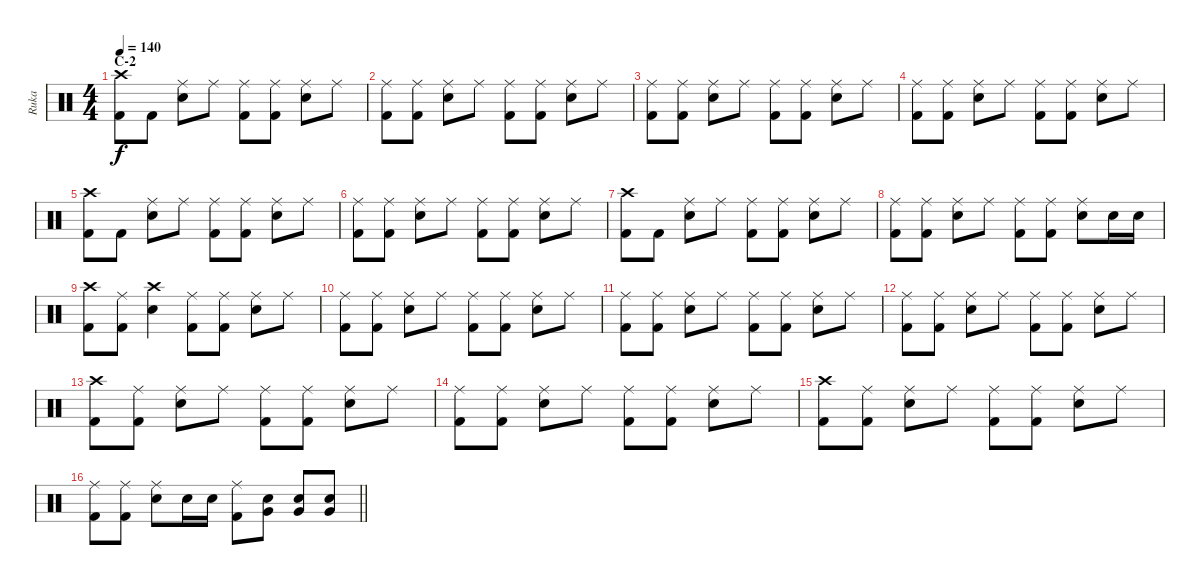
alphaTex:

\track ("Ruka" "Ruka") {instrument percussion}
\staff {score}
\articulation defaults
\ts (4 4)
\section ("" "C-2")
\tempo 140
\clef neutral
\ks c
("Crash high (hit)" "Kick (hit) 2").8{dy f} "Kick (hit) 2".8 ("Ride (middle)" "Snare (hit) 2").8 "Ride (middle)".8 ("Ride (middle)" "Kick (hit) 2").8 ("Ride (middle)" "Kick (hit) 2").8 ("Ride (middle)" "Snare (hit) 2").8 "Ride (middle)".8 |
("Ride (middle)" "Kick (hit) 2").8 ("Ride (middle)" "Kick (hit) 2").8 ("Ride (middle)" "Snare (hit) 2").8 "Ride (middle)".8 ("Ride (middle)" "Kick (hit) 2").8 ("Ride (middle)" "Kick (hit) 2").8 ("Ride (middle)" "Snare (hit) 2").8 "Ride (middle)".8 |
("Ride (middle)" "Kick (hit) 2").8 ("Ride (middle)" "Kick (hit) 2").8 ("Ride (middle)" "Snare (hit) 2").8 "Ride (middle)".8 ("Ride (middle)" "Kick (hit) 2").8 ("Ride (middle)" "Kick (hit) 2").8 ("Ride (middle)" "Snare (hit) 2").8 "Ride (middle)".8 |
("Ride (middle)" "Kick (hit) 2").8 ("Ride (middle)" "Kick (hit) 2").8 ("Ride (middle)" "Snare (hit) 2").8 "Ride (middle)".8 ("Ride (middle)" "Kick (hit) 2").8 ("Ride (middle)" "Kick (hit) 2").8 ("Ride (middle)" "Snare (hit) 2").8 "Ride (middle)".8 |
("Crash high (hit)" "Kick (hit) 2").8 "Kick (hit) 2".8 ("Ride (middle)" "Snare (hit) 2").8 "Ride (middle)".8 ("Ride (middle)" "Kick (hit) 2").8 ("Ride (middle)" "Kick (hit) 2").8 ("Ride (middle)" "Snare (hit) 2").8 "Ride (middle)".8 |
("Ride (middle)" "Kick (hit) 2").8 ("Ride (middle)" "Kick (hit) 2").8 ("Ride (middle)" "Snare (hit) 2").8 "Ride (middle)".8 ("Ride (middle)" "Kick (hit) 2").8 ("Ride (middle)" "Kick (hit) 2").8 ("Ride (middle)" "Snare (hit) 2").8 "Ride (middle)".8 |
("Crash high (hit)" "Kick (hit) 2").8 "Kick (hit) 2".8 ("Ride (middle)" "Snare (hit) 2").8 "Ride (middle)".8 ("Ride (middle)" "Kick (hit) 2").8 ("Ride (middle)" "Kick (hit) 2").8 ("Ride (middle)" "Snare (hit) 2").8 "Ride (middle)".8 |
("Ride (middle)" "Kick (hit) 2").8 ("Ride (middle)" "Kick (hit) 2").8 ("Ride (middle)" "Snare (hit) 2").8 "Ride (middle)".8 ("Ride (middle)" "Kick (hit) 2").8 ("Ride (middle)" "Kick (hit) 2").8 ("Ride (middle)" "Snare (hit) 2").8 "Snare (hit) 2".16 "Snare (hit) 2".16 |
("Crash high (hit)" "Kick (hit) 2").8 ("Ride (middle)" "Kick (hit) 2").8 ("Crash high (hit)" "Snare (hit) 2").4 ("Ride (middle)" "Kick (hit) 2").8 ("Ride (middle)" "Kick (hit) 2").8 ("Ride (middle)" "Snare (hit) 2").8 "Ride (middle)".8 |
("Ride (middle)" "Kick (hit) 2").8 ("Ride (middle)" "Kick (hit) 2").8 ("Ride (middle)" "Snare (hit) 2").8 "Ride (middle)".8 ("Ride (middle)" "Kick (hit) 2").8 ("Ride (middle)" "Kick (hit) 2").8 ("Ride (middle)" "Snare (hit) 2").8 "Ride (middle)".8 |
("Ride (middle)" "Kick (hit) 2").8 ("Ride (middle)" "Kick (hit) 2").8 ("Ride (middle)" "Snare (hit) 2").8 "Ride (middle)".8 ("Ride (middle)" "Kick (hit) 2").8 ("Ride (middle)" "Kick (hit) 2").8 ("Ride (middle)" "Snare (hit) 2").8 "Ride (middle)".8 |
("Ride (middle)" "Kick (hit) 2").8 ("Ride (middle)" "Kick (hit) 2").8 ("Ride (middle)" "Snare (hit) 2").8 "Ride (middle)".8 ("Ride (middle)" "Kick (hit) 2").8 ("Ride (middle)" "Kick (hit) 2").8 ("Ride (middle)" "Snare (hit) 2").8 "Ride (middle)".8 |
("Crash high (hit)" "Kick (hit) 2").8 ("Ride (middle)" "Kick (hit) 2").8 ("Ride (middle)" "Snare (hit) 2").8 "Ride (middle)".8 ("Ride (middle)" "Kick (hit) 2").8 ("Ride (middle)" "Kick (hit) 2").8 ("Ride (middle)" "Snare (hit) 2").8 "Ride (middle)".8 |
("Ride (middle)" "Kick (hit) 2").8 ("Ride (middle)" "Kick (hit) 2").8 ("Ride (middle)" "Snare (hit) 2").8 "Ride (middle)".8 ("Ride (middle)" "Kick (hit) 2").8 ("Ride (middle)" "Kick (hit) 2").8 ("Ride (middle)" "Snare (hit) 2").8 "Ride (middle)".8 |
("Crash high (hit)" "Kick (hit) 2").8 ("Ride (middle)" "Kick (hit) 2").8 ("Ride (middle)" "Snare (hit) 2").8 "Ride (middle)".8 ("Ride (middle)" "Kick (hit) 2").8 ("Ride (middle)" "Kick (hit) 2").8 ("Ride (middle)" "Snare (hit) 2").8 "Ride (middle)".8 |
\barLineRight lightlight
("Ride (middle)" "Kick (hit) 2").8 ("Ride (middle)" "Kick (hit) 2").8 ("Ride (middle)" "Snare (hit) 2").8 "Snare (hit) 2".16 "Snare (hit) 2".16 ("Ride (middle)" "Kick (hit) 2").8 ("Very Low Tom (hit)" "Snare (hit) 2").8 ("Very Low Tom (hit)" "Snare (hit) 2").8 ("Very Low Tom (hit)" "Snare (hit) 2").8
